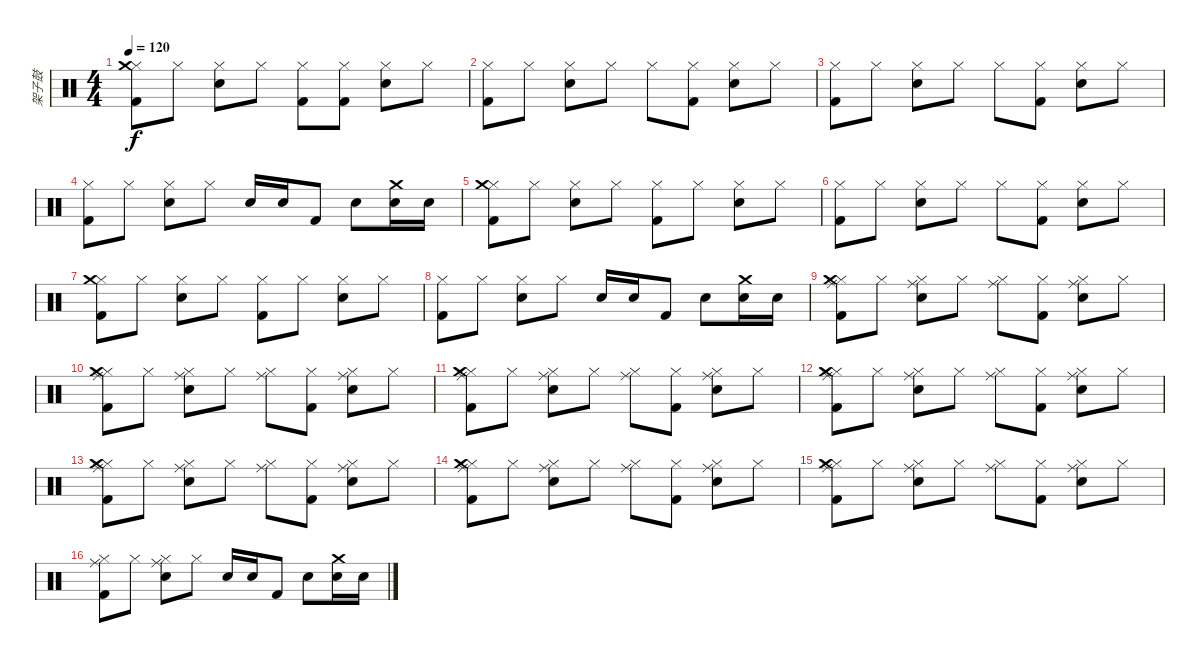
\track ("架子鼓" "架子鼓") {instrument percussion}
\staff {score}
\articulation defaults
\ts (4 4)
\tempo 120
\clef neutral
\ks c
("Hi-Hat (closed)" "Kick (hit) 2" "Crash medium (hit)").8{dy f} "Hi-Hat (closed)".8 ("Hi-Hat (closed)" "Snare (hit) 2").8 "Hi-Hat (closed)".8 ("Hi-Hat (closed)" "Kick (hit) 2").8 ("Hi-Hat (closed)" "Kick (hit) 2").8 ("Hi-Hat (closed)" "Snare (hit) 2").8 "Hi-Hat (closed)".8 |
("Hi-Hat (closed)" "Kick (hit) 2").8 "Hi-Hat (closed)".8 ("Hi-Hat (closed)" "Snare (hit) 2").8 "Hi-Hat (closed)".8 "Hi-Hat (closed)".8 ("Hi-Hat (closed)" "Kick (hit) 2").8 ("Hi-Hat (closed)" "Snare (hit) 2").8 "Hi-Hat (closed)".8 |
("Hi-Hat (closed)" "Kick (hit) 2").8 "Hi-Hat (closed)".8 ("Hi-Hat (closed)" "Snare (hit) 2").8 "Hi-Hat (closed)".8 "Hi-Hat (closed)".8 ("Hi-Hat (closed)" "Kick (hit) 2").8 ("Hi-Hat (closed)" "Snare (hit) 2").8 "Hi-Hat (closed)".8 |
("Hi-Hat (closed)" "Kick (hit) 2").8 "Hi-Hat (closed)".8 ("Hi-Hat (closed)" "Snare (hit) 2").8 "Hi-Hat (closed)".8 "Snare (hit) 2".16 "Snare (hit) 2".16 "Kick (hit) 2".8 "Snare (hit) 2".8 ("Crash medium (hit)" "Snare (hit) 2").16 "Snare (hit) 2".16 |
("Hi-Hat (closed)" "Kick (hit) 2" "Crash medium (hit)").8 "Hi-Hat (closed)".8 ("Hi-Hat (closed)" "Snare (hit) 2").8 "Hi-Hat (closed)".8 ("Hi-Hat (closed)" "Kick (hit) 2").8 "Hi-Hat (closed)".8 ("Hi-Hat (closed)" "Snare (hit) 2").8 "Hi-Hat (closed)".8 |
("Hi-Hat (closed)" "Kick (hit) 2").8 "Hi-Hat (closed)".8 ("Hi-Hat (closed)" "Snare (hit) 2").8 "Hi-Hat (closed)".8 "Hi-Hat (closed)".8 ("Hi-Hat (closed)" "Kick (hit) 2").8 ("Hi-Hat (closed)" "Snare (hit) 2").8 "Hi-Hat (closed)".8 |
("Hi-Hat (closed)" "Kick (hit) 2" "Crash medium (hit)").8 "Hi-Hat (closed)".8 ("Hi-Hat (closed)" "Snare (hit) 2").8 "Hi-Hat (closed)".8 ("Hi-Hat (closed)" "Kick (hit) 2").8 "Hi-Hat (closed)".8 ("Hi-Hat (closed)" "Snare (hit) 2").8 "Hi-Hat (closed)".8 |
("Hi-Hat (closed)" "Kick (hit) 2").8 "Hi-Hat (closed)".8 ("Hi-Hat (closed)" "Snare (hit) 2").8 "Hi-Hat (closed)".8 "Snare (hit) 2".16 "Snare (hit) 2".16 "Kick (hit) 2".8 "Snare (hit) 2".8 ("Crash medium (hit)" "Snare (hit) 2").16 "Snare (hit) 2".16 |
("Hi-Hat (closed)" "Kick (hit) 2" "Ride (middle)" "Crash medium (hit)").8 "Hi-Hat (closed)".8 ("Hi-Hat (closed)" "Snare (hit) 2" "Ride (middle)").8 "Hi-Hat (closed)".8 ("Hi-Hat (closed)" "Ride (middle)").8 ("Hi-Hat (closed)" "Kick (hit) 2").8 ("Hi-Hat (closed)" "Snare (hit) 2" "Ride (middle)").8 "Hi-Hat (closed)".8 |
("Hi-Hat (closed)" "Kick (hit) 2" "Ride (middle)" "Crash medium (hit)").8 "Hi-Hat (closed)".8 ("Hi-Hat (closed)" "Snare (hit) 2" "Ride (middle)").8 "Hi-Hat (closed)".8 ("Hi-Hat (closed)" "Ride (middle)").8 ("Hi-Hat (closed)" "Kick (hit) 2").8 ("Hi-Hat (closed)" "Snare (hit) 2" "Ride (middle)").8 "Hi-Hat (closed)".8 |
("Hi-Hat (closed)" "Kick (hit) 2" "Ride (middle)" "Crash medium (hit)").8 "Hi-Hat (closed)".8 ("Hi-Hat (closed)" "Snare (hit) 2" "Ride (middle)").8 "Hi-Hat (closed)".8 ("Hi-Hat (closed)" "Ride (middle)").8 ("Hi-Hat (closed)" "Kick (hit) 2").8 ("Hi-Hat (closed)" "Snare (hit) 2" "Ride (middle)").8 "Hi-Hat (closed)".8 |
("Hi-Hat (closed)" "Kick (hit) 2" "Ride (middle)" "Crash medium (hit)").8 "Hi-Hat (closed)".8 ("Hi-Hat (closed)" "Snare (hit) 2" "Ride (middle)").8 "Hi-Hat (closed)".8 ("Hi-Hat (closed)" "Ride (middle)").8 ("Hi-Hat (closed)" "Kick (hit) 2").8 ("Hi-Hat (closed)" "Snare (hit) 2" "Ride (middle)").8 "Hi-Hat (closed)".8 |
("Hi-Hat (closed)" "Kick (hit) 2" "Ride (middle)" "Crash medium (hit)").8 "Hi-Hat (closed)".8 ("Hi-Hat (closed)" "Snare (hit) 2" "Ride (middle)").8 "Hi-Hat (closed)".8 ("Hi-Hat (closed)" "Ride (middle)").8 ("Hi-Hat (closed)" "Kick (hit) 2").8 ("Hi-Hat (closed)" "Snare (hit) 2" "Ride (middle)").8 "Hi-Hat (closed)".8 |
("Hi-Hat (closed)" "Kick (hit) 2" "Ride (middle)" "Crash medium (hit)").8 "Hi-Hat (closed)".8 ("Hi-Hat (closed)" "Snare (hit) 2" "Ride (middle)").8 "Hi-Hat (closed)".8 ("Hi-Hat (closed)" "Ride (middle)").8 ("Hi-Hat (closed)" "Kick (hit) 2").8 ("Hi-Hat (closed)" "Snare (hit) 2" "Ride (middle)").8 "Hi-Hat (closed)".8 |
("Hi-Hat (closed)" "Kick (hit) 2" "Ride (middle)" "Crash medium (hit)").8 "Hi-Hat (closed)".8 ("Hi-Hat (closed)" "Snare (hit) 2" "Ride (middle)").8 "Hi-Hat (closed)".8 ("Hi-Hat (closed)" "Ride (middle)").8 ("Hi-Hat (closed)" "Kick (hit) 2").8 ("Hi-Hat (closed)" "Snare (hit) 2" "Ride (middle)").8 "Hi-Hat (closed)".8 |
("Hi-Hat (closed)" "Kick (hit) 2" "Ride (middle)").8 "Hi-Hat (closed)".8 ("Hi-Hat (closed)" "Snare (hit) 2" "Ride (middle)").8 "Hi-Hat (closed)".8 "Snare (hit) 2".16 "Snare (hit) 2".16 "Kick (hit) 2".8 "Snare (hit) 2".8 ("Crash medium (hit)" "Snare (hit) 2").16 "Snare (hit) 2".16
